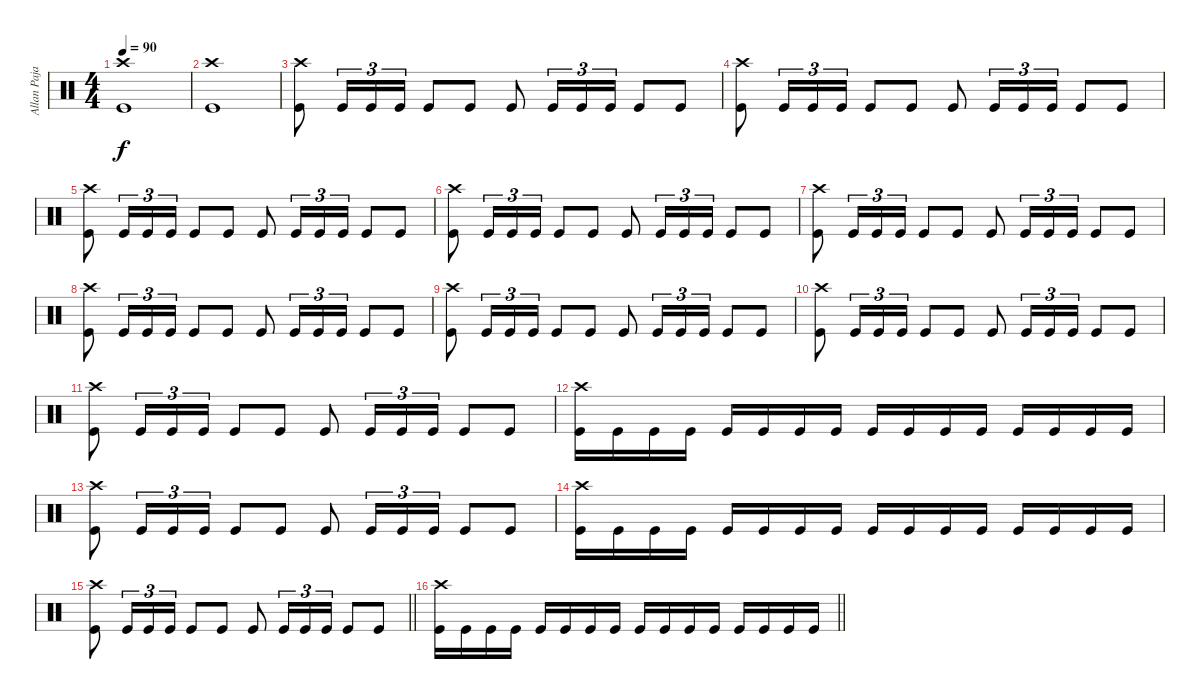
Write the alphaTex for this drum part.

\track ("Allan Pajarin (Drums)" "Allan Paja") {instrument percussion}
\staff {score}
\articulation defaults
\ts (4 4)
\tempo 90
\clef neutral
\ks c
("Kick (hit)" "Crash high (hit)").1{dy f} |
("Kick (hit)" "Crash high (hit)").1 |
("Kick (hit)" "Crash high (hit)").8 "Kick (hit)".16{tu (3 2)} "Kick (hit)".16{tu (3 2)} "Kick (hit)".16{tu (3 2)} "Kick (hit)".8 "Kick (hit)".8 "Kick (hit)".8 "Kick (hit)".16{tu (3 2)} "Kick (hit)".16{tu (3 2)} "Kick (hit)".16{tu (3 2)} "Kick (hit)".8 "Kick (hit)".8 |
("Kick (hit)" "Crash high (hit)").8 "Kick (hit)".16{tu (3 2)} "Kick (hit)".16{tu (3 2)} "Kick (hit)".16{tu (3 2)} "Kick (hit)".8 "Kick (hit)".8 "Kick (hit)".8 "Kick (hit)".16{tu (3 2)} "Kick (hit)".16{tu (3 2)} "Kick (hit)".16{tu (3 2)} "Kick (hit)".8 "Kick (hit)".8 |
("Kick (hit)" "Crash high (hit)").8 "Kick (hit)".16{tu (3 2)} "Kick (hit)".16{tu (3 2)} "Kick (hit)".16{tu (3 2)} "Kick (hit)".8 "Kick (hit)".8 "Kick (hit)".8 "Kick (hit)".16{tu (3 2)} "Kick (hit)".16{tu (3 2)} "Kick (hit)".16{tu (3 2)} "Kick (hit)".8 "Kick (hit)".8 |
("Kick (hit)" "Crash high (hit)").8 "Kick (hit)".16{tu (3 2)} "Kick (hit)".16{tu (3 2)} "Kick (hit)".16{tu (3 2)} "Kick (hit)".8 "Kick (hit)".8 "Kick (hit)".8 "Kick (hit)".16{tu (3 2)} "Kick (hit)".16{tu (3 2)} "Kick (hit)".16{tu (3 2)} "Kick (hit)".8 "Kick (hit)".8 |
("Kick (hit)" "Crash high (hit)").8 "Kick (hit)".16{tu (3 2)} "Kick (hit)".16{tu (3 2)} "Kick (hit)".16{tu (3 2)} "Kick (hit)".8 "Kick (hit)".8 "Kick (hit)".8 "Kick (hit)".16{tu (3 2)} "Kick (hit)".16{tu (3 2)} "Kick (hit)".16{tu (3 2)} "Kick (hit)".8 "Kick (hit)".8 |
("Kick (hit)" "Crash high (hit)").8 "Kick (hit)".16{tu (3 2)} "Kick (hit)".16{tu (3 2)} "Kick (hit)".16{tu (3 2)} "Kick (hit)".8 "Kick (hit)".8 "Kick (hit)".8 "Kick (hit)".16{tu (3 2)} "Kick (hit)".16{tu (3 2)} "Kick (hit)".16{tu (3 2)} "Kick (hit)".8 "Kick (hit)".8 |
("Kick (hit)" "Crash high (hit)").8 "Kick (hit)".16{tu (3 2)} "Kick (hit)".16{tu (3 2)} "Kick (hit)".16{tu (3 2)} "Kick (hit)".8 "Kick (hit)".8 "Kick (hit)".8 "Kick (hit)".16{tu (3 2)} "Kick (hit)".16{tu (3 2)} "Kick (hit)".16{tu (3 2)} "Kick (hit)".8 "Kick (hit)".8 |
("Kick (hit)" "Crash high (hit)").8 "Kick (hit)".16{tu (3 2)} "Kick (hit)".16{tu (3 2)} "Kick (hit)".16{tu (3 2)} "Kick (hit)".8 "Kick (hit)".8 "Kick (hit)".8 "Kick (hit)".16{tu (3 2)} "Kick (hit)".16{tu (3 2)} "Kick (hit)".16{tu (3 2)} "Kick (hit)".8 "Kick (hit)".8 |
("Kick (hit)" "Crash high (hit)").8 "Kick (hit)".16{tu (3 2)} "Kick (hit)".16{tu (3 2)} "Kick (hit)".16{tu (3 2)} "Kick (hit)".8 "Kick (hit)".8 "Kick (hit)".8 "Kick (hit)".16{tu (3 2)} "Kick (hit)".16{tu (3 2)} "Kick (hit)".16{tu (3 2)} "Kick (hit)".8 "Kick (hit)".8 |
("Kick (hit)" "Crash high (hit)").16 "Kick (hit)".16 "Kick (hit)".16 "Kick (hit)".16 "Kick (hit)".16 "Kick (hit)".16 "Kick (hit)".16 "Kick (hit)".16 "Kick (hit)".16 "Kick (hit)".16 "Kick (hit)".16 "Kick (hit)".16 "Kick (hit)".16 "Kick (hit)".16 "Kick (hit)".16 "Kick (hit)".16 |
("Kick (hit)" "Crash high (hit)").8 "Kick (hit)".16{tu (3 2)} "Kick (hit)".16{tu (3 2)} "Kick (hit)".16{tu (3 2)} "Kick (hit)".8 "Kick (hit)".8 "Kick (hit)".8 "Kick (hit)".16{tu (3 2)} "Kick (hit)".16{tu (3 2)} "Kick (hit)".16{tu (3 2)} "Kick (hit)".8 "Kick (hit)".8 |
("Kick (hit)" "Crash high (hit)").16 "Kick (hit)".16 "Kick (hit)".16 "Kick (hit)".16 "Kick (hit)".16 "Kick (hit)".16 "Kick (hit)".16 "Kick (hit)".16 "Kick (hit)".16 "Kick (hit)".16 "Kick (hit)".16 "Kick (hit)".16 "Kick (hit)".16 "Kick (hit)".16 "Kick (hit)".16 "Kick (hit)".16 |
\barLineRight lightlight
("Kick (hit)" "Crash high (hit)").8 "Kick (hit)".16{tu (3 2)} "Kick (hit)".16{tu (3 2)} "Kick (hit)".16{tu (3 2)} "Kick (hit)".8 "Kick (hit)".8 "Kick (hit)".8 "Kick (hit)".16{tu (3 2)} "Kick (hit)".16{tu (3 2)} "Kick (hit)".16{tu (3 2)} "Kick (hit)".8 "Kick (hit)".8 |
\barLineRight lightlight
("Kick (hit)" "Crash high (hit)").16 "Kick (hit)".16 "Kick (hit)".16 "Kick (hit)".16 "Kick (hit)".16 "Kick (hit)".16 "Kick (hit)".16 "Kick (hit)".16 "Kick (hit)".16 "Kick (hit)".16 "Kick (hit)".16 "Kick (hit)".16 "Kick (hit)".16 "Kick (hit)".16 "Kick (hit)".16 "Kick (hit)".16
